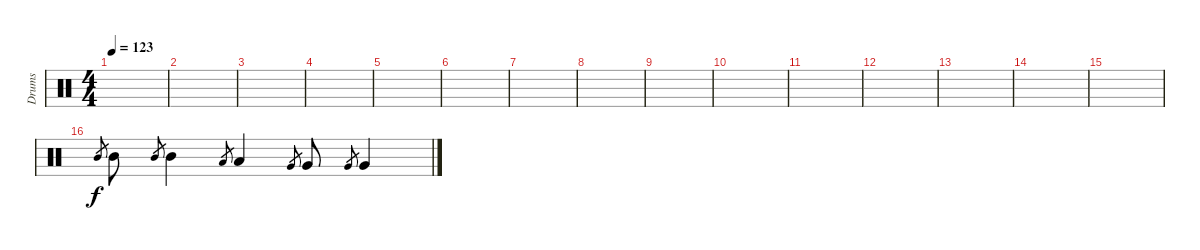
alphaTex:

\track ("Drums" "Drums") {instrument percussion}
\staff {score}
\articulation defaults
\ts (4 4)
\tempo 123
\clef neutral
\ks c
|
|
|
|
|
|
|
|
|
|
|
|
|
|
|
"Mid Tom (hit)".8{gr} "Mid Tom (hit)".8 "Mid Tom (hit)".8{gr} "Mid Tom (hit)".4 "Low Tom (hit)".8{gr} "Low Tom (hit)".4 "Very Low Tom (hit)".8{gr} "Very Low Tom (hit)".8 "Very Low Tom (hit)".8{gr} "Very Low Tom (hit)".4
